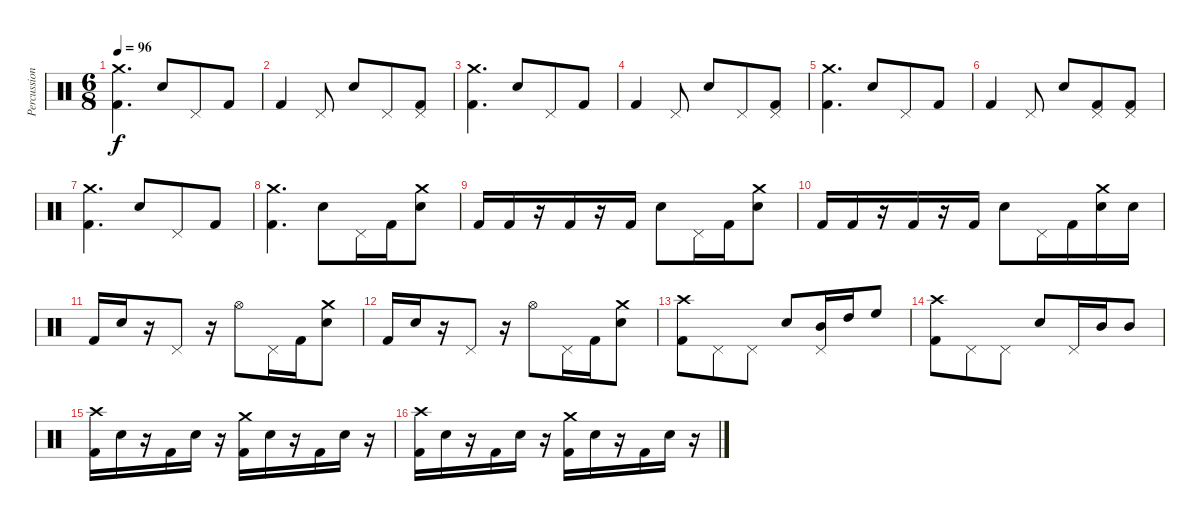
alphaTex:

\track ("Percussion" "Percussion") {instrument percussion}
\staff {score}
\articulation defaults
\ts (6 8)
\tempo 96
\clef neutral
\ks c
("Kick (hit) 2" "Crash medium (hit)").4{d dy f} "Snare (hit) 2".8 "Pedal Hi-Hat (hit)".8 "Kick (hit) 2".8 |
"Kick (hit) 2".4 "Pedal Hi-Hat (hit)".8 "Snare (hit) 2".8 "Pedal Hi-Hat (hit)".8 ("Kick (hit) 2" "Pedal Hi-Hat (hit)").8 |
("Kick (hit) 2" "Crash medium (hit)").4{d} "Snare (hit) 2".8 "Pedal Hi-Hat (hit)".8 "Kick (hit) 2".8 |
"Kick (hit) 2".4 "Pedal Hi-Hat (hit)".8 "Snare (hit) 2".8 "Pedal Hi-Hat (hit)".8 ("Kick (hit) 2" "Pedal Hi-Hat (hit)").8 |
("Kick (hit) 2" "Crash medium (hit)").4{d} "Snare (hit) 2".8 "Pedal Hi-Hat (hit)".8 "Kick (hit) 2".8 |
"Kick (hit) 2".4 "Pedal Hi-Hat (hit)".8 "Snare (hit) 2".8 ("Kick (hit) 2" "Pedal Hi-Hat (hit)").8 ("Kick (hit) 2" "Pedal Hi-Hat (hit)").8 |
("Kick (hit) 2" "Crash medium (hit)").4{d} "Snare (hit) 2".8 "Pedal Hi-Hat (hit)".8 "Kick (hit) 2".8 |
("Kick (hit) 2" "Crash medium (hit)").4{d} "Snare (hit) 2".8 "Pedal Hi-Hat (hit)".16 "Kick (hit) 2".16 ("Snare (hit) 2" "Crash medium (hit)").8 |
"Kick (hit) 2".16 "Kick (hit) 2".16 r.16 "Kick (hit) 2".16 r.16 "Kick (hit) 2".16 "Snare (hit) 2".8 "Pedal Hi-Hat (hit)".16 "Kick (hit) 2".16 ("Snare (hit) 2" "Crash medium (hit)").8 |
"Kick (hit) 2".16 "Kick (hit) 2".16 r.16 "Kick (hit) 2".16 r.16 "Kick (hit) 2".16 "Snare (hit) 2".8 "Pedal Hi-Hat (hit)".16 "Kick (hit) 2".16 ("Snare (hit) 2" "Crash medium (hit)").16 "Snare (hit) 2".16 |
"Kick (hit) 2".16 "Snare (hit) 2".16 r.16 "Pedal Hi-Hat (hit)".8 r.16 "Hi-Hat (open)".8 "Pedal Hi-Hat (hit)".16 "Kick (hit) 2".16 ("Snare (hit) 2" "Crash medium (hit)").8 |
"Kick (hit) 2".16 "Snare (hit) 2".16 r.16 "Pedal Hi-Hat (hit)".8 r.16 "Hi-Hat (open)".8 "Pedal Hi-Hat (hit)".16 "Kick (hit) 2".16 ("Snare (hit) 2" "Crash medium (hit)").8 |
("Kick (hit) 2" "Crash high (hit)").8 "Pedal Hi-Hat (hit)".8 "Pedal Hi-Hat (hit)".8 "Snare (hit) 2".8 ("Mid Tom (hit)" "Pedal Hi-Hat (hit)").16 "High Tom (hit)".16 "High Floor Tom (hit)".8 |
("Kick (hit) 2" "Crash high (hit)").8 "Pedal Hi-Hat (hit)".8 "Pedal Hi-Hat (hit)".8 "Snare (hit) 2".8 "Pedal Hi-Hat (hit)".16 "Mid Tom (hit)".16 "Mid Tom (hit)".8 |
("Kick (hit) 2" "Crash high (hit)").16 "Snare (hit) 2".16 r.16 "Kick (hit) 2".16 "Snare (hit) 2".16 r.16 ("Kick (hit) 2" "Crash medium (hit)").16 "Snare (hit) 2".16 r.16 "Kick (hit) 2".16 "Snare (hit) 2".16 r.16 |
("Kick (hit) 2" "Crash high (hit)").16 "Snare (hit) 2".16 r.16 "Kick (hit) 2".16 "Snare (hit) 2".16 r.16 ("Kick (hit) 2" "Crash medium (hit)").16 "Snare (hit) 2".16 r.16 "Kick (hit) 2".16 "Snare (hit) 2".16 r.16
